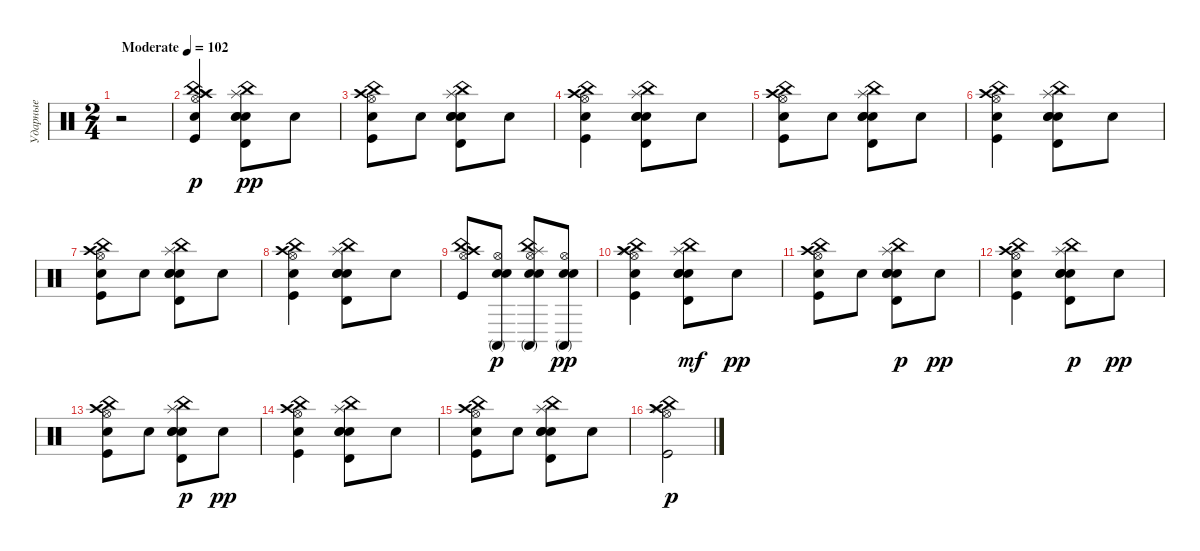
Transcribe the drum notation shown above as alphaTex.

\track ("Ударные" "Ударные") {instrument percussion}
\staff {score}
\articulation defaults
\ts (2 4)
\tempo (102 "Moderate")
\clef neutral
\ks c
r.2{dy p} |
("Snare (hit) 2" "Hi-Hat (open)" "China (hit)" "Splash (hit)" "Crash high (hit)" "Kick (hit)").4 ("Timbale high (hit)" "Electric Snare (hit)" "Splash (hit)" "China (hit)" "Snare (hit) 2" "Hand Clap (hit)").8{dy pp} "Hand Clap (hit)".8 |
("Kick (hit)" "Hi-Hat (open)" "China (hit)" "Crash high (hit)" "Hand Clap (hit)").8 "Hand Clap (hit)".8 ("Electric Snare (hit)" "Splash (hit)" "China (hit)" "Snare (hit) 2" "Timbale high (hit)" "Hand Clap (hit)").8 "Hand Clap (hit)".8 |
("Kick (hit)" "Hi-Hat (open)" "China (hit)" "Crash high (hit)" "Hand Clap (hit)").4 ("Splash (hit)" "China (hit)" "Snare (hit) 2" "Timbale high (hit)" "Electric Snare (hit)" "Hand Clap (hit)").8 "Hand Clap (hit)".8 |
("Kick (hit)" "Hi-Hat (open)" "China (hit)" "Crash high (hit)" "Hand Clap (hit)").8 "Hand Clap (hit)".8 ("Splash (hit)" "China (hit)" "Snare (hit) 2" "Electric Snare (hit)" "Timbale high (hit)" "Hand Clap (hit)").8 "Hand Clap (hit)".8 |
("Kick (hit)" "Hi-Hat (open)" "China (hit)" "Crash high (hit)" "Hand Clap (hit)").4 ("Splash (hit)" "China (hit)" "Snare (hit) 2" "Timbale high (hit)" "Electric Snare (hit)" "Hand Clap (hit)").8 "Hand Clap (hit)".8 |
("Kick (hit)" "Hi-Hat (open)" "China (hit)" "Crash high (hit)" "Hand Clap (hit)").8 "Hand Clap (hit)".8 ("Splash (hit)" "China (hit)" "Snare (hit) 2" "Electric Snare (hit)" "Timbale high (hit)" "Hand Clap (hit)").8 "Hand Clap (hit)".8 |
("Kick (hit)" "Hi-Hat (open)" "China (hit)" "Crash high (hit)" "Hand Clap (hit)").4 ("Splash (hit)" "China (hit)" "Snare (hit) 2" "Timbale high (hit)" "Electric Snare (hit)" "Hand Clap (hit)").8 "Hand Clap (hit)".8 |
("Kick (hit)" "Hi-Hat (open)" "China (hit)" "Crash high (hit)").8 ("Snare (hit) 2" "Electric Snare (hit)" "Hi-Hat (open)" "Conga high (mute)").8{dy p} ("China (hit)" "Splash (hit)" "Electric Snare (hit)" "Hi-Hat (open)" "Snare (hit) 2" "Conga high (mute)").8 ("Snare (hit) 2" "Electric Snare (hit)" "Conga high (mute)" "Hi-Hat (open)").8{dy pp} |
("China (hit)" "Crash high (hit)" "Splash (hit)" "Hi-Hat (open)" "Kick (hit)" "Hand Clap (hit)").4 ("Timbale high (hit)" "Snare (hit) 2" "Splash (hit)" "China (hit)" "Hand Clap (hit)" "Electric Snare (hit)").8{dy mf} "Hand Clap (hit)".8{dy pp} |
("Hi-Hat (open)" "China (hit)" "Kick (hit)" "Crash high (hit)" "Hand Clap (hit)").8 "Hand Clap (hit)".8 ("China (hit)" "Splash (hit)" "Hand Clap (hit)" "Snare (hit) 2" "Electric Snare (hit)" "Timbale high (hit)").8{dy p} "Hand Clap (hit)".8{dy pp} |
("Kick (hit)" "Hand Clap (hit)" "China (hit)" "Hi-Hat (open)" "Crash high (hit)").4 ("Splash (hit)" "Electric Snare (hit)" "Hand Clap (hit)" "China (hit)" "Snare (hit) 2" "Timbale high (hit)").8{dy p} "Hand Clap (hit)".8{dy pp} |
("Kick (hit)" "Hand Clap (hit)" "China (hit)" "Hi-Hat (open)" "Crash high (hit)").8 "Hand Clap (hit)".8 ("Electric Snare (hit)" "Timbale high (hit)" "Hand Clap (hit)" "Splash (hit)" "China (hit)" "Snare (hit) 2").8{dy p} "Hand Clap (hit)".8{dy pp} |
("Crash high (hit)" "China (hit)" "Kick (hit)" "Hi-Hat (open)" "Hand Clap (hit)").4 ("Snare (hit) 2" "Electric Snare (hit)" "Timbale high (hit)" "Splash (hit)" "China (hit)" "Hand Clap (hit)").8 "Hand Clap (hit)".8 |
("Hi-Hat (open)" "China (hit)" "Kick (hit)" "Hand Clap (hit)" "Crash high (hit)").8 "Hand Clap (hit)".8 ("China (hit)" "Snare (hit) 2" "Splash (hit)" "Electric Snare (hit)" "Timbale high (hit)" "Hand Clap (hit)").8 "Hand Clap (hit)".8 |
("Hi-Hat (open)" "Kick (hit)" "Crash high (hit)" "Splash (hit)" "China (hit)").2{dy p}
